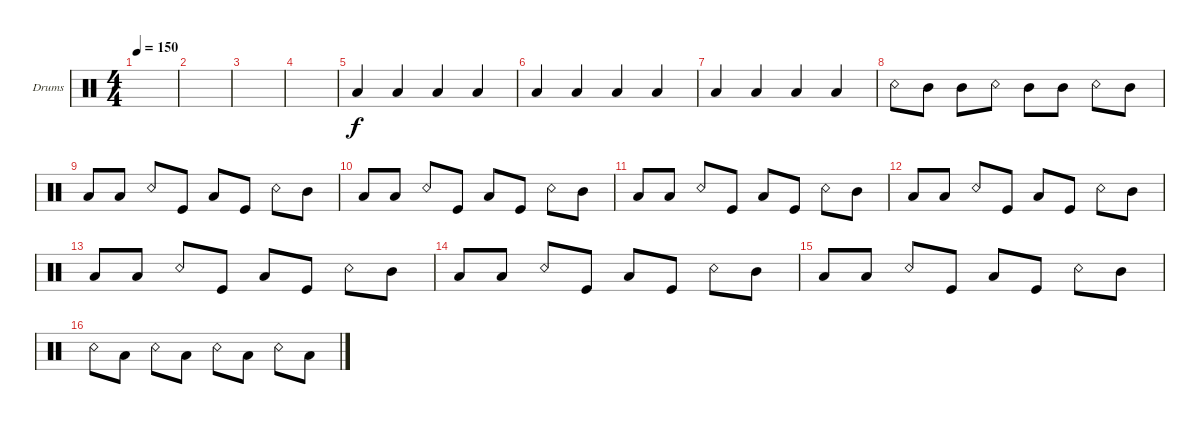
\defaultSystemsLayout 4
\bracketExtendMode groupsimilarinstruments
\firstSystemTrackNameOrientation horizontal
\otherSystemsTrackNameOrientation horizontal
\track ("Drumkit" "Drums") {instrument percussion}
\staff {score}
\articulation defaults
\ts (4 4)
\tempo 150
\clef neutral
\scale
0.474178
\ks c
|
\scale
0.262911 |
\scale
0.262911 |
\scale
0.333333 |
\scale
0.333333 "Low Tom (hit)".4 "Low Tom (hit)".4 "Low Tom (hit)".4 "Low Tom (hit)".4 |
\scale
0.333333 "Low Tom (hit)".4 "Low Tom (hit)".4 "Low Tom (hit)".4 "Low Tom (hit)".4 |
\scale
0.333333 "Low Tom (hit)".4 "Low Tom (hit)".4 "Low Tom (hit)".4 "Low Tom (hit)".4 |
\scale
0.333333 "Snare (rim shot)".8 "Mid Tom (hit)".8 "Mid Tom (hit)".8 "Snare (rim shot)".8 "Mid Tom (hit)".8 "Mid Tom (hit)".8 "Snare (rim shot)".8 "Mid Tom (hit)".8 |
\scale
0.333333 "Low Tom (hit)".8 "Low Tom (hit)".8 "Snare (rim shot)".8 "Kick (hit)".8 "Low Tom (hit)".8 "Kick (hit)".8 "Snare (rim shot)".8 "Mid Tom (hit)".8 |
"Low Tom (hit)".8 "Low Tom (hit)".8 "Snare (rim shot)".8 "Kick (hit)".8 "Low Tom (hit)".8 "Kick (hit)".8 "Snare (rim shot)".8 "Mid Tom (hit)".8 |
"Low Tom (hit)".8 "Low Tom (hit)".8 "Snare (rim shot)".8 "Kick (hit)".8 "Low Tom (hit)".8 "Kick (hit)".8 "Snare (rim shot)".8 "Mid Tom (hit)".8 |
"Low Tom (hit)".8 "Low Tom (hit)".8 "Snare (rim shot)".8 "Kick (hit)".8 "Low Tom (hit)".8 "Kick (hit)".8 "Snare (rim shot)".8 "Mid Tom (hit)".8 |
"Low Tom (hit)".8 "Low Tom (hit)".8 "Snare (rim shot)".8 "Kick (hit)".8 "Low Tom (hit)".8 "Kick (hit)".8 "Snare (rim shot)".8 "Mid Tom (hit)".8 |
"Low Tom (hit)".8 "Low Tom (hit)".8 "Snare (rim shot)".8 "Kick (hit)".8 "Low Tom (hit)".8 "Kick (hit)".8 "Snare (rim shot)".8 "Mid Tom (hit)".8 |
"Low Tom (hit)".8 "Low Tom (hit)".8 "Snare (rim shot)".8 "Kick (hit)".8 "Low Tom (hit)".8 "Kick (hit)".8 "Snare (rim shot)".8 "Mid Tom (hit)".8 |
"Snare (rim shot)".8 "Low Tom (hit)".8 "Snare (rim shot)".8 "Low Tom (hit)".8 "Snare (rim shot)".8 "Low Tom (hit)".8 "Snare (rim shot)".8 "Low Tom (hit)".8
